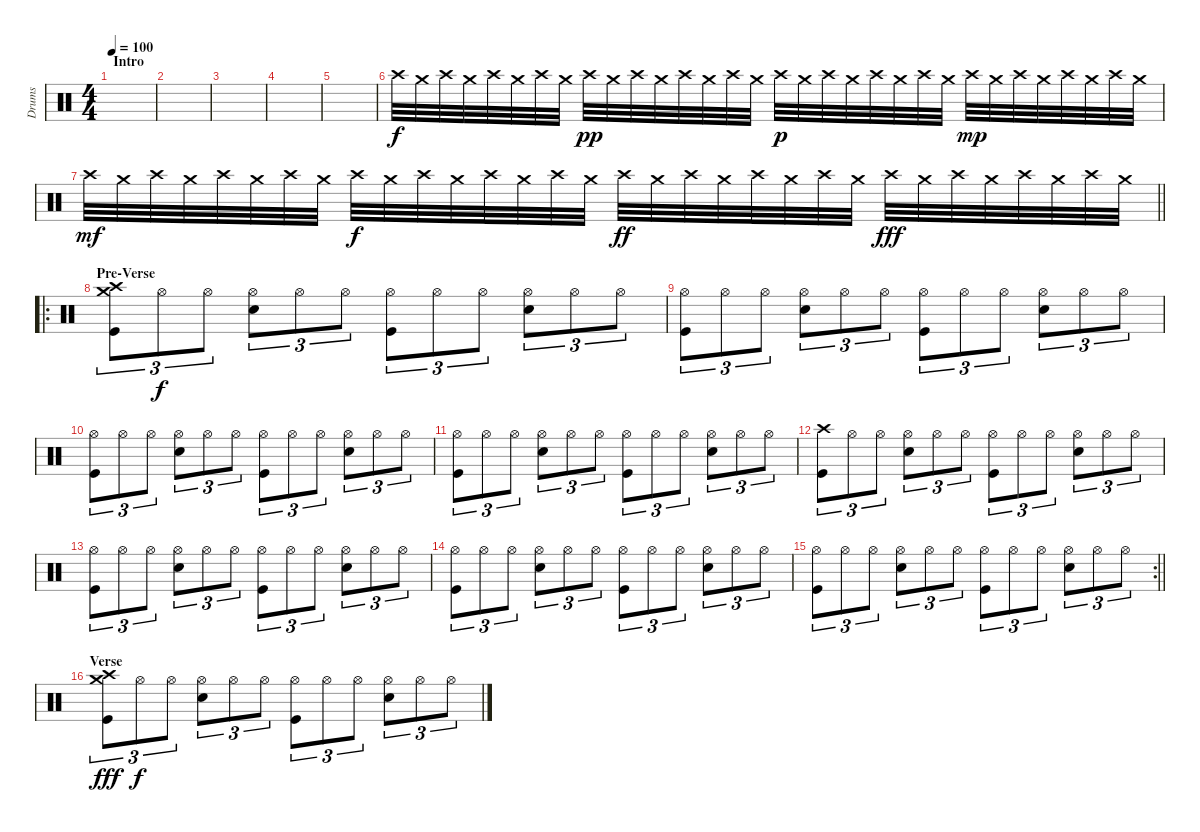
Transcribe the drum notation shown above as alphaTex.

\track ("Drums" "Drums") {instrument percussion}
\staff {score}
\articulation defaults
\ts (4 4)
\section ("" "Intro")
\tempo 100
\clef neutral
\ks c
|
|
|
|
|
"Crash high (hit)".32 "Crash medium (hit)".32 "Crash high (hit)".32 "Crash medium (hit)".32 "Crash high (hit)".32 "Crash medium (hit)".32 "Crash high (hit)".32 "Crash medium (hit)".32 "Crash high (hit)".32{dy pp} "Crash medium (hit)".32 "Crash high (hit)".32 "Crash medium (hit)".32 "Crash high (hit)".32 "Crash medium (hit)".32 "Crash high (hit)".32 "Crash medium (hit)".32 "Crash high (hit)".32{dy p} "Crash medium (hit)".32 "Crash high (hit)".32 "Crash medium (hit)".32 "Crash high (hit)".32 "Crash medium (hit)".32 "Crash high (hit)".32 "Crash medium (hit)".32 "Crash high (hit)".32{dy mp} "Crash medium (hit)".32 "Crash high (hit)".32 "Crash medium (hit)".32 "Crash high (hit)".32 "Crash medium (hit)".32 "Crash high (hit)".32 "Crash medium (hit)".32 |
\barLineRight lightlight "Crash high (hit)".32{dy mf} "Crash medium (hit)".32 "Crash high (hit)".32 "Crash medium (hit)".32 "Crash high (hit)".32 "Crash medium (hit)".32 "Crash high (hit)".32 "Crash medium (hit)".32 "Crash high (hit)".32{dy f} "Crash medium (hit)".32 "Crash high (hit)".32 "Crash medium (hit)".32 "Crash high (hit)".32 "Crash medium (hit)".32 "Crash high (hit)".32 "Crash medium (hit)".32 "Crash high (hit)".32{dy ff} "Crash medium (hit)".32 "Crash high (hit)".32 "Crash medium (hit)".32 "Crash high (hit)".32 "Crash medium (hit)".32 "Crash high (hit)".32 "Crash medium (hit)".32 "Crash high (hit)".32{dy fff} "Crash medium (hit)".32 "Crash high (hit)".32 "Crash medium (hit)".32 "Crash high (hit)".32 "Crash medium (hit)".32 "Crash high (hit)".32 "Crash medium (hit)".32
|
\ro
\section ("" "Pre-Verse")
("Crash high (hit)" "Crash medium (hit)" "Kick (hit)").8{tu (3 2)} "Hi-Hat (open)".8{tu (3 2) dy f} "Hi-Hat (open)".8{tu (3 2)} ("Hi-Hat (open)" "Snare (hit) 2").8{tu (3 2)} "Hi-Hat (open)".8{tu (3 2)} "Hi-Hat (open)".8{tu (3 2)} ("Hi-Hat (open)" "Kick (hit)").8{tu (3 2)} "Hi-Hat (open)".8{tu (3 2)} "Hi-Hat (open)".8{tu (3 2)} ("Hi-Hat (open)" "Snare (hit) 2").8{tu (3 2)} "Hi-Hat (open)".8{tu (3 2)} "Hi-Hat (open)".8{tu (3 2)} |
("Hi-Hat (open)" "Kick (hit)").8{tu (3 2)} "Hi-Hat (open)".8{tu (3 2)} "Hi-Hat (open)".8{tu (3 2)} ("Hi-Hat (open)" "Snare (hit) 2").8{tu (3 2)} "Hi-Hat (open)".8{tu (3 2)} "Hi-Hat (open)".8{tu (3 2)} ("Hi-Hat (open)" "Kick (hit)").8{tu (3 2)} "Hi-Hat (open)".8{tu (3 2)} "Hi-Hat (open)".8{tu (3 2)} ("Hi-Hat (open)" "Snare (hit) 2").8{tu (3 2)} "Hi-Hat (open)".8{tu (3 2)} "Hi-Hat (open)".8{tu (3 2)} |
("Hi-Hat (open)" "Kick (hit)").8{tu (3 2)} "Hi-Hat (open)".8{tu (3 2)} "Hi-Hat (open)".8{tu (3 2)} ("Hi-Hat (open)" "Snare (hit) 2").8{tu (3 2)} "Hi-Hat (open)".8{tu (3 2)} "Hi-Hat (open)".8{tu (3 2)} ("Hi-Hat (open)" "Kick (hit)").8{tu (3 2)} "Hi-Hat (open)".8{tu (3 2)} "Hi-Hat (open)".8{tu (3 2)} ("Hi-Hat (open)" "Snare (hit) 2").8{tu (3 2)} "Hi-Hat (open)".8{tu (3 2)} "Hi-Hat (open)".8{tu (3 2)} |
("Hi-Hat (open)" "Kick (hit)").8{tu (3 2)} "Hi-Hat (open)".8{tu (3 2)} "Hi-Hat (open)".8{tu (3 2)} ("Hi-Hat (open)" "Snare (hit) 2").8{tu (3 2)} "Hi-Hat (open)".8{tu (3 2)} "Hi-Hat (open)".8{tu (3 2)} ("Hi-Hat (open)" "Kick (hit)").8{tu (3 2)} "Hi-Hat (open)".8{tu (3 2)} "Hi-Hat (open)".8{tu (3 2)} ("Hi-Hat (open)" "Snare (hit) 2").8{tu (3 2)} "Hi-Hat (open)".8{tu (3 2)} "Hi-Hat (open)".8{tu (3 2)} |
("Crash high (hit)" "Kick (hit)").8{tu (3 2)} "Hi-Hat (open)".8{tu (3 2)} "Hi-Hat (open)".8{tu (3 2)} ("Hi-Hat (open)" "Snare (hit) 2").8{tu (3 2)} "Hi-Hat (open)".8{tu (3 2)} "Hi-Hat (open)".8{tu (3 2)} ("Hi-Hat (open)" "Kick (hit)").8{tu (3 2)} "Hi-Hat (open)".8{tu (3 2)} "Hi-Hat (open)".8{tu (3 2)} ("Hi-Hat (open)" "Snare (hit) 2").8{tu (3 2)} "Hi-Hat (open)".8{tu (3 2)} "Hi-Hat (open)".8{tu (3 2)} |
("Hi-Hat (open)" "Kick (hit)").8{tu (3 2)} "Hi-Hat (open)".8{tu (3 2)} "Hi-Hat (open)".8{tu (3 2)} ("Hi-Hat (open)" "Snare (hit) 2").8{tu (3 2)} "Hi-Hat (open)".8{tu (3 2)} "Hi-Hat (open)".8{tu (3 2)} ("Hi-Hat (open)" "Kick (hit)").8{tu (3 2)} "Hi-Hat (open)".8{tu (3 2)} "Hi-Hat (open)".8{tu (3 2)} ("Hi-Hat (open)" "Snare (hit) 2").8{tu (3 2)} "Hi-Hat (open)".8{tu (3 2)} "Hi-Hat (open)".8{tu (3 2)} |
("Hi-Hat (open)" "Kick (hit)").8{tu (3 2)} "Hi-Hat (open)".8{tu (3 2)} "Hi-Hat (open)".8{tu (3 2)} ("Hi-Hat (open)" "Snare (hit) 2").8{tu (3 2)} "Hi-Hat (open)".8{tu (3 2)} "Hi-Hat (open)".8{tu (3 2)} ("Hi-Hat (open)" "Kick (hit)").8{tu (3 2)} "Hi-Hat (open)".8{tu (3 2)} "Hi-Hat (open)".8{tu (3 2)} ("Hi-Hat (open)" "Snare (hit) 2").8{tu (3 2)} "Hi-Hat (open)".8{tu (3 2)} "Hi-Hat (open)".8{tu (3 2)} |
\rc 2
\barLineRight lightlight
("Hi-Hat (open)" "Kick (hit)").8{tu (3 2)} "Hi-Hat (open)".8{tu (3 2)} "Hi-Hat (open)".8{tu (3 2)} ("Hi-Hat (open)" "Snare (hit) 2").8{tu (3 2)} "Hi-Hat (open)".8{tu (3 2)} "Hi-Hat (open)".8{tu (3 2)} ("Hi-Hat (open)" "Kick (hit)").8{tu (3 2)} "Hi-Hat (open)".8{tu (3 2)} "Hi-Hat (open)".8{tu (3 2)} ("Hi-Hat (open)" "Snare (hit) 2").8{tu (3 2)} "Hi-Hat (open)".8{tu (3 2)} "Hi-Hat (open)".8{tu (3 2)} |
\section ("" "Verse")
("Crash high (hit)" "Crash medium (hit)" "Kick (hit)").8{tu (3 2) dy fff} "Hi-Hat (open)".8{tu (3 2) dy f} "Hi-Hat (open)".8{tu (3 2)} ("Hi-Hat (open)" "Snare (hit) 2").8{tu (3 2)} "Hi-Hat (open)".8{tu (3 2)} "Hi-Hat (open)".8{tu (3 2)} ("Hi-Hat (open)" "Kick (hit)").8{tu (3 2)} "Hi-Hat (open)".8{tu (3 2)} "Hi-Hat (open)".8{tu (3 2)} ("Hi-Hat (open)" "Snare (hit) 2").8{tu (3 2)} "Hi-Hat (open)".8{tu (3 2)} "Hi-Hat (open)".8{tu (3 2)}
